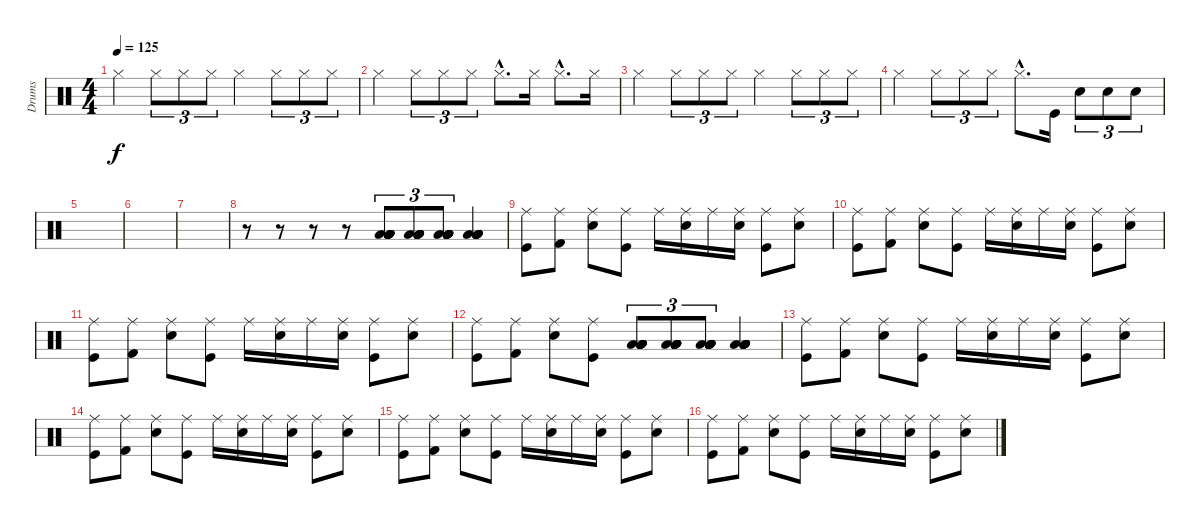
\track ("Drums" "Drums") {instrument percussion}
\staff {score}
\articulation defaults
\ts (4 4)
\tempo 125
\clef neutral
\ks c "Hi-Hat (closed)".4{dy f} "Hi-Hat (closed)".8{tu (3 2)} "Hi-Hat (closed)".8{tu (3 2)} "Hi-Hat (closed)".8{tu (3 2)} "Hi-Hat (closed)".4 "Hi-Hat (closed)".8{tu (3 2)} "Hi-Hat (closed)".8{tu (3 2)} "Hi-Hat (closed)".8{tu (3 2)}
|
"Hi-Hat (closed)".4 "Hi-Hat (closed)".8{tu (3 2)} "Hi-Hat (closed)".8{tu (3 2)} "Hi-Hat (closed)".8{tu (3 2)} "Hi-Hat (closed)"{hac}.8{d} "Hi-Hat (closed)".16 "Hi-Hat (closed)"{hac}.8{d} "Hi-Hat (closed)".16 |
"Hi-Hat (closed)".4 "Hi-Hat (closed)".8{tu (3 2)} "Hi-Hat (closed)".8{tu (3 2)} "Hi-Hat (closed)".8{tu (3 2)} "Hi-Hat (closed)".4 "Hi-Hat (closed)".8{tu (3 2)} "Hi-Hat (closed)".8{tu (3 2)} "Hi-Hat (closed)".8{tu (3 2)} |
"Hi-Hat (closed)".4 "Hi-Hat (closed)".8{tu (3 2)} "Hi-Hat (closed)".8{tu (3 2)} "Hi-Hat (closed)".8{tu (3 2)} "Hi-Hat (closed)"{hac}.8{d} "Kick (hit)".16 "Electric Snare (hit)".8{tu (3 2)} "Electric Snare (hit)".8{tu (3 2)} "Electric Snare (hit)".8{tu (3 2)} |
|
|
|
r.8 r.8 r.8 r.8 ("Low Tom (hit)" "Low Tom (hit)" "Low Tom (hit)" "Low Tom (hit)" "Low Tom (hit)" "Low Tom (hit)").8{tu (3 2)} ("Low Tom (hit)" "Low Tom (hit)" "Low Tom (hit)" "Low Tom (hit)" "Low Tom (hit)" "Low Tom (hit)").8{tu (3 2)} ("Low Tom (hit)" "Low Tom (hit)" "Low Tom (hit)" "Low Tom (hit)" "Low Tom (hit)" "Low Tom (hit)").8{tu (3 2)} ("Low Tom (hit)" "Low Tom (hit)" "Low Tom (hit)" "Low Tom (hit)" "Low Tom (hit)" "Low Tom (hit)").4 |
("Ride (middle)" "Kick (hit)").8 ("Ride (middle)" "Kick (hit) 2").8 ("Ride (middle)" "Electric Snare (hit)").8 ("Ride (middle)" "Kick (hit)").8 "Ride (middle)".16 ("Ride (middle)" "Electric Snare (hit)").16 "Ride (middle)".16 ("Ride (middle)" "Electric Snare (hit)").16 ("Ride (middle)" "Kick (hit)").8 ("Ride (middle)" "Electric Snare (hit)").8 |
("Ride (middle)" "Kick (hit)").8 ("Ride (middle)" "Kick (hit) 2").8 ("Ride (middle)" "Electric Snare (hit)").8 ("Ride (middle)" "Kick (hit)").8 "Ride (middle)".16 ("Ride (middle)" "Electric Snare (hit)").16 "Ride (middle)".16 ("Ride (middle)" "Electric Snare (hit)").16 ("Ride (middle)" "Kick (hit)").8 ("Ride (middle)" "Electric Snare (hit)").8 |
("Ride (middle)" "Kick (hit)").8 ("Ride (middle)" "Kick (hit) 2").8 ("Ride (middle)" "Electric Snare (hit)").8 ("Ride (middle)" "Kick (hit)").8 "Ride (middle)".16 ("Ride (middle)" "Electric Snare (hit)").16 "Ride (middle)".16 ("Ride (middle)" "Electric Snare (hit)").16 ("Ride (middle)" "Kick (hit)").8 ("Ride (middle)" "Electric Snare (hit)").8 |
("Ride (middle)" "Kick (hit)").8 ("Ride (middle)" "Kick (hit) 2").8 ("Ride (middle)" "Electric Snare (hit)").8 ("Ride (middle)" "Kick (hit)").8 ("Low Tom (hit)" "Low Tom (hit)" "Low Tom (hit)" "Low Tom (hit)" "Low Tom (hit)" "Low Tom (hit)").8{tu (3 2)} ("Low Tom (hit)" "Low Tom (hit)" "Low Tom (hit)" "Low Tom (hit)" "Low Tom (hit)" "Low Tom (hit)").8{tu (3 2)} ("Low Tom (hit)" "Low Tom (hit)" "Low Tom (hit)" "Low Tom (hit)" "Low Tom (hit)" "Low Tom (hit)").8{tu (3 2)} ("Low Tom (hit)" "Low Tom (hit)" "Low Tom (hit)" "Low Tom (hit)" "Low Tom (hit)" "Low Tom (hit)").4 |
("Ride (middle)" "Kick (hit)").8 ("Ride (middle)" "Kick (hit) 2").8 ("Ride (middle)" "Electric Snare (hit)").8 ("Ride (middle)" "Kick (hit)").8 "Ride (middle)".16 ("Ride (middle)" "Electric Snare (hit)").16 "Ride (middle)".16 ("Ride (middle)" "Electric Snare (hit)").16 ("Ride (middle)" "Kick (hit)").8 ("Ride (middle)" "Electric Snare (hit)").8 |
("Ride (middle)" "Kick (hit)").8 ("Ride (middle)" "Kick (hit) 2").8 ("Ride (middle)" "Electric Snare (hit)").8 ("Ride (middle)" "Kick (hit)").8 "Ride (middle)".16 ("Ride (middle)" "Electric Snare (hit)").16 "Ride (middle)".16 ("Ride (middle)" "Electric Snare (hit)").16 ("Ride (middle)" "Kick (hit)").8 ("Ride (middle)" "Electric Snare (hit)").8 |
("Ride (middle)" "Kick (hit)").8 ("Ride (middle)" "Kick (hit) 2").8 ("Ride (middle)" "Electric Snare (hit)").8 ("Ride (middle)" "Kick (hit)").8 "Ride (middle)".16 ("Ride (middle)" "Electric Snare (hit)").16 "Ride (middle)".16 ("Ride (middle)" "Electric Snare (hit)").16 ("Ride (middle)" "Kick (hit)").8 ("Ride (middle)" "Electric Snare (hit)").8 |
("Ride (middle)" "Kick (hit)").8 ("Ride (middle)" "Kick (hit) 2").8 ("Ride (middle)" "Electric Snare (hit)").8 ("Ride (middle)" "Kick (hit)").8 "Ride (middle)".16 ("Ride (middle)" "Electric Snare (hit)").16 "Ride (middle)".16 ("Ride (middle)" "Electric Snare (hit)").16 ("Ride (middle)" "Kick (hit)").8 ("Ride (middle)" "Electric Snare (hit)").8
